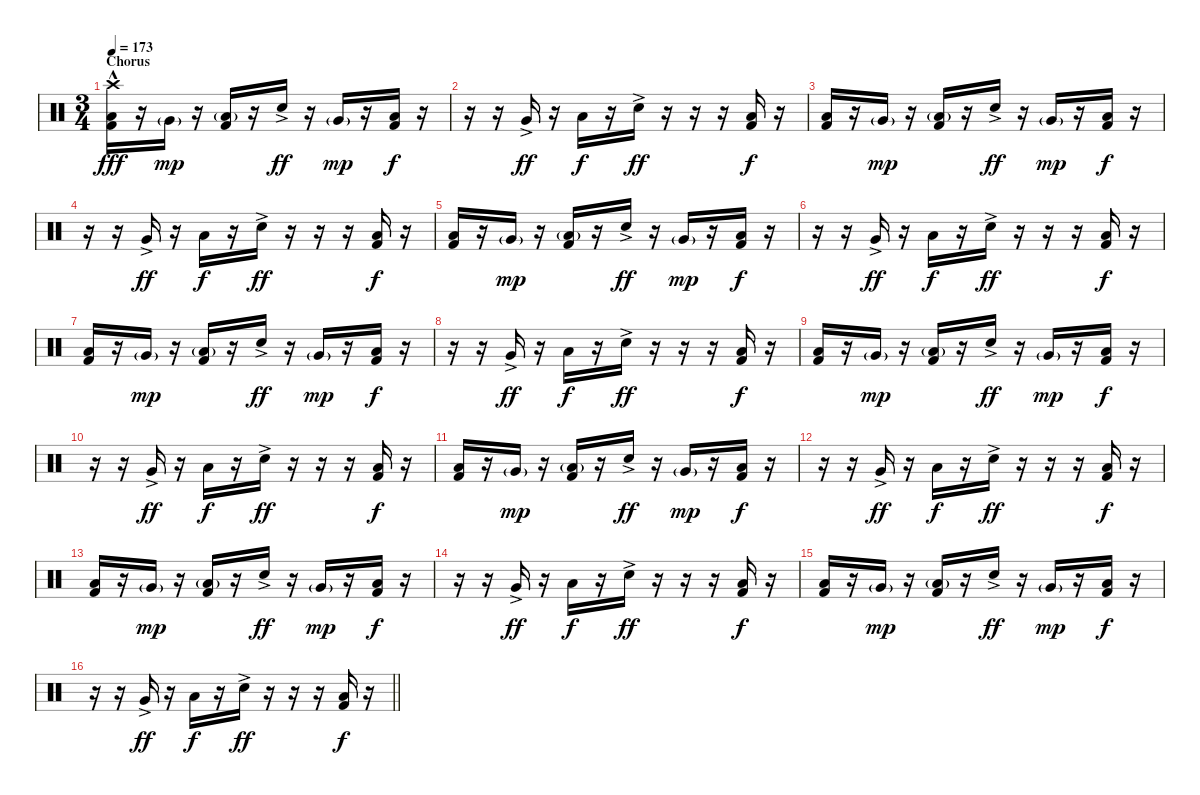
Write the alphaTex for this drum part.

\track (" " " ") {instrument percussion}
\staff {score}
\articulation defaults
\ts (3 4)
\section ("" "Chorus")
\tempo 173
\clef neutral
\ks c
("Crash high (hit)"{hac} "Low Floor Tom (hit)"{hac} "Kick (hit) 2"{hac}).16{dy fff} r.16 "Very Low Tom (hit)"{g}.16{dy mp} r.16 ("Low Floor Tom (hit)"{g} "Kick (hit) 2").16 r.16 "Electric Snare (hit)"{ac}.16{dy ff} r.16 "Very Low Tom (hit)"{g}.16{dy mp} r.16 ("Low Floor Tom (hit)" "Kick (hit) 2").16{dy f} r.16 |
r.16 r.16 "Very Low Tom (hit)"{ac}.16{dy ff} r.16 "Low Floor Tom (hit)".16{dy f} r.16 "Electric Snare (hit)"{ac}.16{dy ff} r.16 r.16 r.16 ("Low Floor Tom (hit)" "Kick (hit) 2").16{dy f} r.16 |
("Low Floor Tom (hit)" "Kick (hit) 2").16 r.16 "Very Low Tom (hit)"{g}.16{dy mp} r.16 ("Low Floor Tom (hit)"{g} "Kick (hit) 2").16 r.16 "Electric Snare (hit)"{ac}.16{dy ff} r.16 "Very Low Tom (hit)"{g}.16{dy mp} r.16 ("Low Floor Tom (hit)" "Kick (hit) 2").16{dy f} r.16 |
r.16 r.16 "Very Low Tom (hit)"{ac}.16{dy ff} r.16 "Low Floor Tom (hit)".16{dy f} r.16 "Electric Snare (hit)"{ac}.16{dy ff} r.16 r.16 r.16 ("Low Floor Tom (hit)" "Kick (hit) 2").16{dy f} r.16 |
("Low Floor Tom (hit)" "Kick (hit) 2").16 r.16 "Very Low Tom (hit)"{g}.16{dy mp} r.16 ("Low Floor Tom (hit)"{g} "Kick (hit) 2").16 r.16 "Electric Snare (hit)"{ac}.16{dy ff} r.16 "Very Low Tom (hit)"{g}.16{dy mp} r.16 ("Low Floor Tom (hit)" "Kick (hit) 2").16{dy f} r.16 |
r.16 r.16 "Very Low Tom (hit)"{ac}.16{dy ff} r.16 "Low Floor Tom (hit)".16{dy f} r.16 "Electric Snare (hit)"{ac}.16{dy ff} r.16 r.16 r.16 ("Low Floor Tom (hit)" "Kick (hit) 2").16{dy f} r.16 |
("Low Floor Tom (hit)" "Kick (hit) 2").16 r.16 "Very Low Tom (hit)"{g}.16{dy mp} r.16 ("Low Floor Tom (hit)"{g} "Kick (hit) 2").16 r.16 "Electric Snare (hit)"{ac}.16{dy ff} r.16 "Very Low Tom (hit)"{g}.16{dy mp} r.16 ("Low Floor Tom (hit)" "Kick (hit) 2").16{dy f} r.16 |
r.16 r.16 "Very Low Tom (hit)"{ac}.16{dy ff} r.16 "Low Floor Tom (hit)".16{dy f} r.16 "Electric Snare (hit)"{ac}.16{dy ff} r.16 r.16 r.16 ("Low Floor Tom (hit)" "Kick (hit) 2").16{dy f} r.16 |
("Low Floor Tom (hit)" "Kick (hit) 2").16 r.16 "Very Low Tom (hit)"{g}.16{dy mp} r.16 ("Low Floor Tom (hit)"{g} "Kick (hit) 2").16 r.16 "Electric Snare (hit)"{ac}.16{dy ff} r.16 "Very Low Tom (hit)"{g}.16{dy mp} r.16 ("Low Floor Tom (hit)" "Kick (hit) 2").16{dy f} r.16 |
r.16 r.16 "Very Low Tom (hit)"{ac}.16{dy ff} r.16 "Low Floor Tom (hit)".16{dy f} r.16 "Electric Snare (hit)"{ac}.16{dy ff} r.16 r.16 r.16 ("Low Floor Tom (hit)" "Kick (hit) 2").16{dy f} r.16 |
("Low Floor Tom (hit)" "Kick (hit) 2").16 r.16 "Very Low Tom (hit)"{g}.16{dy mp} r.16 ("Low Floor Tom (hit)"{g} "Kick (hit) 2").16 r.16 "Electric Snare (hit)"{ac}.16{dy ff} r.16 "Very Low Tom (hit)"{g}.16{dy mp} r.16 ("Low Floor Tom (hit)" "Kick (hit) 2").16{dy f} r.16 |
r.16 r.16 "Very Low Tom (hit)"{ac}.16{dy ff} r.16 "Low Floor Tom (hit)".16{dy f} r.16 "Electric Snare (hit)"{ac}.16{dy ff} r.16 r.16 r.16 ("Low Floor Tom (hit)" "Kick (hit) 2").16{dy f} r.16 |
("Low Floor Tom (hit)" "Kick (hit) 2").16 r.16 "Very Low Tom (hit)"{g}.16{dy mp} r.16 ("Low Floor Tom (hit)"{g} "Kick (hit) 2").16 r.16 "Electric Snare (hit)"{ac}.16{dy ff} r.16 "Very Low Tom (hit)"{g}.16{dy mp} r.16 ("Low Floor Tom (hit)" "Kick (hit) 2").16{dy f} r.16 |
r.16 r.16 "Very Low Tom (hit)"{ac}.16{dy ff} r.16 "Low Floor Tom (hit)".16{dy f} r.16 "Electric Snare (hit)"{ac}.16{dy ff} r.16 r.16 r.16 ("Low Floor Tom (hit)" "Kick (hit) 2").16{dy f} r.16 |
("Low Floor Tom (hit)" "Kick (hit) 2").16 r.16 "Very Low Tom (hit)"{g}.16{dy mp} r.16 ("Low Floor Tom (hit)"{g} "Kick (hit) 2").16 r.16 "Electric Snare (hit)"{ac}.16{dy ff} r.16 "Very Low Tom (hit)"{g}.16{dy mp} r.16 ("Low Floor Tom (hit)" "Kick (hit) 2").16{dy f} r.16 |
\barLineRight lightlight
r.16 r.16 "Very Low Tom (hit)"{ac}.16{dy ff} r.16 "Low Floor Tom (hit)".16{dy f} r.16 "Electric Snare (hit)"{ac}.16{dy ff} r.16 r.16 r.16 ("Low Floor Tom (hit)" "Kick (hit) 2").16{dy f} r.16
